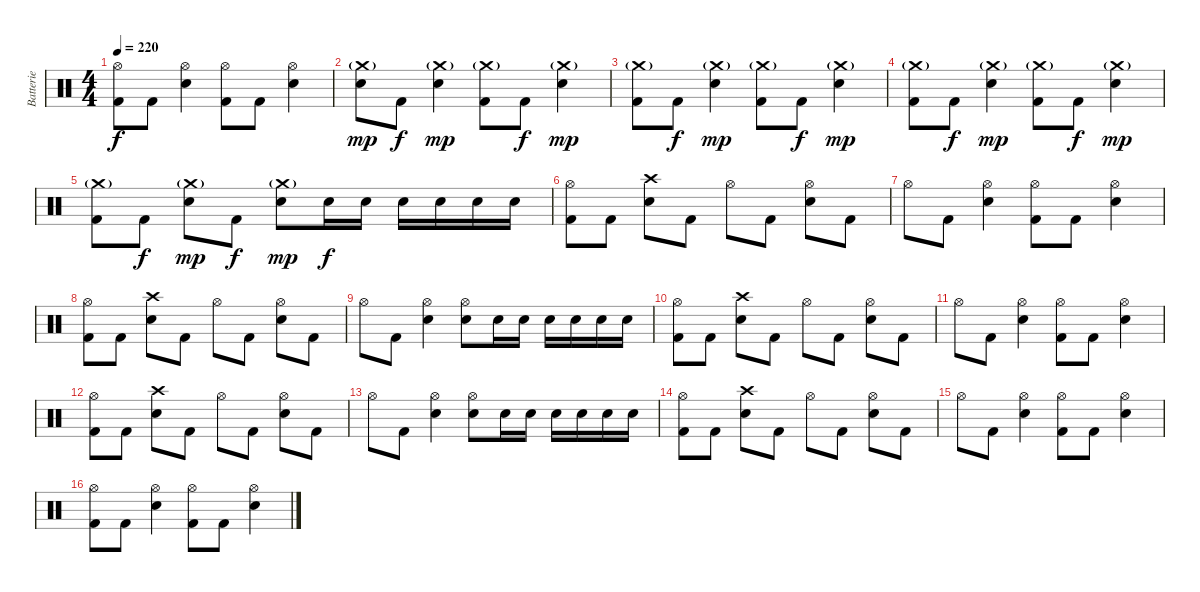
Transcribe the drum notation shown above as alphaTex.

\track ("Batterie" "Batterie") {instrument percussion}
\staff {score}
\articulation defaults
\ts (4 4)
\tempo 220
\clef neutral
\ks c
("Hi-Hat (open)" "Kick (hit) 2").8{dy f} "Kick (hit) 2".8 ("Hi-Hat (open)" "Electric Snare (hit)").4 ("Hi-Hat (open)" "Kick (hit) 2").8 "Kick (hit) 2".8 ("Hi-Hat (open)" "Electric Snare (hit)").4 |
("Crash medium (hit)"{g} "Electric Snare (hit)").8{dy mp} "Kick (hit) 2".8{dy f} ("Crash medium (hit)"{g} "Electric Snare (hit)").4{dy mp} ("Crash medium (hit)"{g} "Kick (hit) 2").8 "Kick (hit) 2".8{dy f} ("Crash medium (hit)"{g} "Electric Snare (hit)").4{dy mp} |
("Crash medium (hit)"{g} "Kick (hit) 2").8 "Kick (hit) 2".8{dy f} ("Crash medium (hit)"{g} "Electric Snare (hit)").4{dy mp} ("Crash medium (hit)"{g} "Kick (hit) 2").8 "Kick (hit) 2".8{dy f} ("Crash medium (hit)"{g} "Electric Snare (hit)").4{dy mp} |
("Crash medium (hit)"{g} "Kick (hit) 2").8 "Kick (hit) 2".8{dy f} ("Crash medium (hit)"{g} "Electric Snare (hit)").4{dy mp} ("Crash medium (hit)"{g} "Kick (hit) 2").8 "Kick (hit) 2".8{dy f} ("Crash medium (hit)"{g} "Electric Snare (hit)").4{dy mp} |
("Crash medium (hit)"{g} "Kick (hit) 2").8 "Kick (hit) 2".8{dy f} ("Crash medium (hit)"{g} "Electric Snare (hit)").8{dy mp} "Kick (hit) 2".8{dy f} ("Crash medium (hit)"{g} "Electric Snare (hit)").8{dy mp} "Electric Snare (hit)".16{dy f} "Electric Snare (hit)".16 "Electric Snare (hit)".16 "Electric Snare (hit)".16 "Electric Snare (hit)".16 "Electric Snare (hit)".16 |
("Hi-Hat (open)" "Kick (hit) 2").8 "Kick (hit) 2".8 ("Crash high (hit)" "Electric Snare (hit)").8 "Kick (hit) 2".8 "Hi-Hat (open)".8 "Kick (hit) 2".8 ("Hi-Hat (open)" "Electric Snare (hit)").8 "Kick (hit) 2".8 |
"Hi-Hat (open)".8 "Kick (hit) 2".8 ("Hi-Hat (open)" "Electric Snare (hit)").4 ("Hi-Hat (open)" "Kick (hit) 2").8 "Kick (hit) 2".8 ("Hi-Hat (open)" "Electric Snare (hit)").4 |
("Hi-Hat (open)" "Kick (hit) 2").8 "Kick (hit) 2".8 ("Crash high (hit)" "Electric Snare (hit)").8 "Kick (hit) 2".8 "Hi-Hat (open)".8 "Kick (hit) 2".8 ("Hi-Hat (open)" "Electric Snare (hit)").8 "Kick (hit) 2".8 |
"Hi-Hat (open)".8 "Kick (hit) 2".8 ("Hi-Hat (open)" "Electric Snare (hit)").4 ("Hi-Hat (open)" "Electric Snare (hit)").8 "Electric Snare (hit)".16 "Electric Snare (hit)".16 "Electric Snare (hit)".16 "Electric Snare (hit)".16 "Electric Snare (hit)".16 "Electric Snare (hit)".16 |
("Hi-Hat (open)" "Kick (hit) 2").8 "Kick (hit) 2".8 ("Crash high (hit)" "Electric Snare (hit)").8 "Kick (hit) 2".8 "Hi-Hat (open)".8 "Kick (hit) 2".8 ("Hi-Hat (open)" "Electric Snare (hit)").8 "Kick (hit) 2".8 |
"Hi-Hat (open)".8 "Kick (hit) 2".8 ("Hi-Hat (open)" "Electric Snare (hit)").4 ("Hi-Hat (open)" "Kick (hit) 2").8 "Kick (hit) 2".8 ("Hi-Hat (open)" "Electric Snare (hit)").4 |
("Hi-Hat (open)" "Kick (hit) 2").8 "Kick (hit) 2".8 ("Crash high (hit)" "Electric Snare (hit)").8 "Kick (hit) 2".8 "Hi-Hat (open)".8 "Kick (hit) 2".8 ("Hi-Hat (open)" "Electric Snare (hit)").8 "Kick (hit) 2".8 |
"Hi-Hat (open)".8 "Kick (hit) 2".8 ("Hi-Hat (open)" "Electric Snare (hit)").4 ("Hi-Hat (open)" "Electric Snare (hit)").8 "Electric Snare (hit)".16 "Electric Snare (hit)".16 "Electric Snare (hit)".16 "Electric Snare (hit)".16 "Electric Snare (hit)".16 "Electric Snare (hit)".16 |
("Hi-Hat (open)" "Kick (hit) 2").8 "Kick (hit) 2".8 ("Crash high (hit)" "Electric Snare (hit)").8 "Kick (hit) 2".8 "Hi-Hat (open)".8 "Kick (hit) 2".8 ("Hi-Hat (open)" "Electric Snare (hit)").8 "Kick (hit) 2".8 |
"Hi-Hat (open)".8 "Kick (hit) 2".8 ("Hi-Hat (open)" "Electric Snare (hit)").4 ("Hi-Hat (open)" "Kick (hit) 2").8 "Kick (hit) 2".8 ("Hi-Hat (open)" "Electric Snare (hit)").4 |
("Hi-Hat (open)" "Kick (hit) 2").8 "Kick (hit) 2".8 ("Hi-Hat (open)" "Electric Snare (hit)").4 ("Hi-Hat (open)" "Kick (hit) 2").8 "Kick (hit) 2".8 ("Hi-Hat (open)" "Electric Snare (hit)").4
